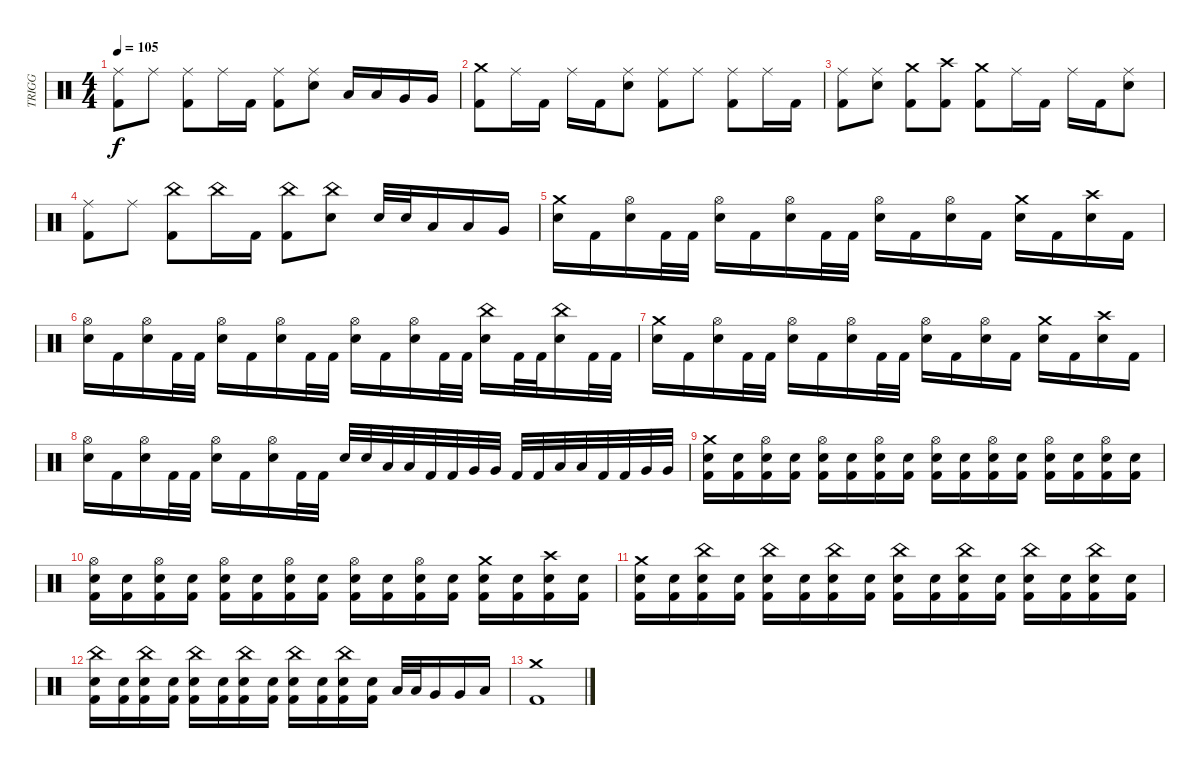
\track ("TRIGG" "TRIGG") {instrument percussion}
\staff {score}
\articulation defaults
\ts (4 4)
\tempo 105
\clef neutral
\ks c
("Ride (middle)" "Kick (hit) 2").8{dy f} "Ride (middle)".8 ("Ride (middle)" "Kick (hit) 2").8 "Ride (middle)".16 "Kick (hit) 2".16 ("Ride (middle)" "Kick (hit) 2").8 ("Ride (middle)" "Electric Snare (hit)").8 "Low Tom (hit)".16 "Low Tom (hit)".16 "Very Low Tom (hit)".16 "Very Low Tom (hit)".16 |
("Crash medium (hit)" "Kick (hit) 2").8 "Ride (middle)".16 "Kick (hit) 2".16 "Ride (middle)".16 "Kick (hit) 2".16 ("Ride (middle)" "Electric Snare (hit)").8 ("Ride (middle)" "Kick (hit) 2").8 "Ride (middle)".8 ("Ride (middle)" "Kick (hit) 2").8 "Ride (middle)".16 "Kick (hit) 2".16 |
("Ride (middle)" "Kick (hit) 2").8 ("Ride (middle)" "Electric Snare (hit)").8 ("Crash medium (hit)" "Kick (hit) 2").8 ("Crash high (hit)" "Kick (hit) 2").8 ("Crash medium (hit)" "Kick (hit) 2").8 "Ride (middle)".16 "Kick (hit) 2".16 "Ride (middle)".16 "Kick (hit) 2".16 ("Ride (middle)" "Electric Snare (hit)").8 |
("Ride (middle)" "Kick (hit) 2").8 "Ride (middle)".8 ("China (hit)" "Kick (hit) 2").8 "China (hit)".16 "Kick (hit) 2".16 ("China (hit)" "Kick (hit) 2").8 ("China (hit)" "Electric Snare (hit)").8 "Electric Snare (hit)".32 "Electric Snare (hit)".32 "Low Tom (hit)".16 "Low Tom (hit)".16 "Very Low Tom (hit)".16 |
("Crash medium (hit)" "Electric Snare (hit)").16 "Kick (hit) 2".16 ("Hi-Hat (open)" "Electric Snare (hit)").16 "Kick (hit) 2".32 "Kick (hit) 2".32 ("Hi-Hat (open)" "Electric Snare (hit)").16 "Kick (hit) 2".16 ("Hi-Hat (open)" "Electric Snare (hit)").16 "Kick (hit) 2".32 "Kick (hit) 2".32 ("Hi-Hat (open)" "Electric Snare (hit)").16 "Kick (hit) 2".16 ("Hi-Hat (open)" "Electric Snare (hit)").16 "Kick (hit) 2".16 ("Crash medium (hit)" "Electric Snare (hit)").16 "Kick (hit) 2".16 ("Crash high (hit)" "Electric Snare (hit)").16 "Kick (hit) 2".16 |
("Hi-Hat (open)" "Electric Snare (hit)").16 "Kick (hit) 2".16 ("Hi-Hat (open)" "Electric Snare (hit)").16 "Kick (hit) 2".32 "Kick (hit) 2".32 ("Hi-Hat (open)" "Electric Snare (hit)").16 "Kick (hit) 2".16 ("Hi-Hat (open)" "Electric Snare (hit)").16 "Kick (hit) 2".32 "Kick (hit) 2".32 ("Hi-Hat (open)" "Electric Snare (hit)").16 "Kick (hit) 2".16 ("Hi-Hat (open)" "Electric Snare (hit)").16 "Kick (hit) 2".32 "Kick (hit) 2".32 ("China (hit)" "Electric Snare (hit)").16 "Kick (hit) 2".32 "Kick (hit) 2".32 ("China (hit)" "Electric Snare (hit)").16 "Kick (hit) 2".32 "Kick (hit) 2".32 |
("Crash medium (hit)" "Electric Snare (hit)").16 "Kick (hit) 2".16 ("Hi-Hat (open)" "Electric Snare (hit)").16 "Kick (hit) 2".32 "Kick (hit) 2".32 ("Hi-Hat (open)" "Electric Snare (hit)").16 "Kick (hit) 2".16 ("Hi-Hat (open)" "Electric Snare (hit)").16 "Kick (hit) 2".32 "Kick (hit) 2".32 ("Hi-Hat (open)" "Electric Snare (hit)").16 "Kick (hit) 2".16 ("Hi-Hat (open)" "Electric Snare (hit)").16 "Kick (hit) 2".16 ("Crash medium (hit)" "Electric Snare (hit)").16 "Kick (hit) 2".16 ("Crash high (hit)" "Electric Snare (hit)").16 "Kick (hit) 2".16 |
("Hi-Hat (open)" "Electric Snare (hit)").16 "Kick (hit) 2".16 ("Hi-Hat (open)" "Electric Snare (hit)").16 "Kick (hit) 2".32 "Kick (hit) 2".32 ("Hi-Hat (open)" "Electric Snare (hit)").16 "Kick (hit) 2".16 ("Hi-Hat (open)" "Electric Snare (hit)").16 "Kick (hit) 2".32 "Kick (hit) 2".32 "Electric Snare (hit)".32 "Electric Snare (hit)".32 "Low Tom (hit)".32 "Low Tom (hit)".32 "Kick (hit) 2".32 "Kick (hit) 2".32 "Very Low Tom (hit)".32 "Very Low Tom (hit)".32 "Kick (hit) 2".32 "Kick (hit) 2".32 "Low Floor Tom (hit)".32 "Low Floor Tom (hit)".32 "Kick (hit) 2".32 "Kick (hit) 2".32 "Very Low Tom (hit)".32 "Very Low Tom (hit)".32 |
("Crash medium (hit)" "Electric Snare (hit)" "Kick (hit) 2").16 ("Electric Snare (hit)" "Kick (hit) 2").16 ("Hi-Hat (open)" "Electric Snare (hit)" "Kick (hit) 2").16 ("Electric Snare (hit)" "Kick (hit) 2").16 ("Hi-Hat (open)" "Electric Snare (hit)" "Kick (hit) 2").16 ("Electric Snare (hit)" "Kick (hit) 2").16 ("Hi-Hat (open)" "Electric Snare (hit)" "Kick (hit) 2").16 ("Electric Snare (hit)" "Kick (hit) 2").16 ("Hi-Hat (open)" "Electric Snare (hit)" "Kick (hit) 2").16 ("Electric Snare (hit)" "Kick (hit) 2").16 ("Hi-Hat (open)" "Electric Snare (hit)" "Kick (hit) 2").16 ("Electric Snare (hit)" "Kick (hit) 2").16 ("Hi-Hat (open)" "Electric Snare (hit)" "Kick (hit) 2").16 ("Electric Snare (hit)" "Kick (hit) 2").16 ("Hi-Hat (open)" "Electric Snare (hit)" "Kick (hit) 2").16 ("Electric Snare (hit)" "Kick (hit) 2").16 |
("Hi-Hat (open)" "Electric Snare (hit)" "Kick (hit) 2").16 ("Electric Snare (hit)" "Kick (hit) 2").16 ("Hi-Hat (open)" "Electric Snare (hit)" "Kick (hit) 2").16 ("Electric Snare (hit)" "Kick (hit) 2").16 ("Hi-Hat (open)" "Electric Snare (hit)" "Kick (hit) 2").16 ("Electric Snare (hit)" "Kick (hit) 2").16 ("Hi-Hat (open)" "Electric Snare (hit)" "Kick (hit) 2").16 ("Electric Snare (hit)" "Kick (hit) 2").16 ("Hi-Hat (open)" "Electric Snare (hit)" "Kick (hit) 2").16 ("Electric Snare (hit)" "Kick (hit) 2").16 ("Hi-Hat (open)" "Electric Snare (hit)" "Kick (hit) 2").16 ("Electric Snare (hit)" "Kick (hit) 2").16 ("Crash medium (hit)" "Electric Snare (hit)" "Kick (hit) 2").16 ("Electric Snare (hit)" "Kick (hit) 2").16 ("Crash high (hit)" "Electric Snare (hit)" "Kick (hit) 2").16 ("Electric Snare (hit)" "Kick (hit) 2").16 |
("Crash medium (hit)" "Electric Snare (hit)" "Kick (hit) 2").16 ("Electric Snare (hit)" "Kick (hit) 2").16 ("China (hit)" "Electric Snare (hit)" "Kick (hit) 2").16 ("Electric Snare (hit)" "Kick (hit) 2").16 ("China (hit)" "Electric Snare (hit)" "Kick (hit) 2").16 ("Electric Snare (hit)" "Kick (hit) 2").16 ("China (hit)" "Electric Snare (hit)" "Kick (hit) 2").16 ("Electric Snare (hit)" "Kick (hit) 2").16 ("China (hit)" "Electric Snare (hit)" "Kick (hit) 2").16 ("Electric Snare (hit)" "Kick (hit) 2").16 ("China (hit)" "Electric Snare (hit)" "Kick (hit) 2").16 ("Electric Snare (hit)" "Kick (hit) 2").16 ("China (hit)" "Electric Snare (hit)" "Kick (hit) 2").16 ("Electric Snare (hit)" "Kick (hit) 2").16 ("China (hit)" "Electric Snare (hit)" "Kick (hit) 2").16 ("Electric Snare (hit)" "Kick (hit) 2").16 |
("China (hit)" "Electric Snare (hit)" "Kick (hit) 2").16 ("Electric Snare (hit)" "Kick (hit) 2").16 ("China (hit)" "Electric Snare (hit)" "Kick (hit) 2").16 ("Electric Snare (hit)" "Kick (hit) 2").16 ("China (hit)" "Electric Snare (hit)" "Kick (hit) 2").16 ("Electric Snare (hit)" "Kick (hit) 2").16 ("China (hit)" "Electric Snare (hit)" "Kick (hit) 2").16 ("Electric Snare (hit)" "Kick (hit) 2").16 ("China (hit)" "Electric Snare (hit)" "Kick (hit) 2").16 ("Electric Snare (hit)" "Kick (hit) 2").16 ("China (hit)" "Electric Snare (hit)" "Kick (hit) 2").16 ("Electric Snare (hit)" "Kick (hit) 2").16 "Low Tom (hit)".32 "Low Tom (hit)".32 "Very Low Tom (hit)".16 "Very Low Tom (hit)".16 "Low Floor Tom (hit)".16 |
("Crash medium (hit)" "Kick (hit) 2").1
